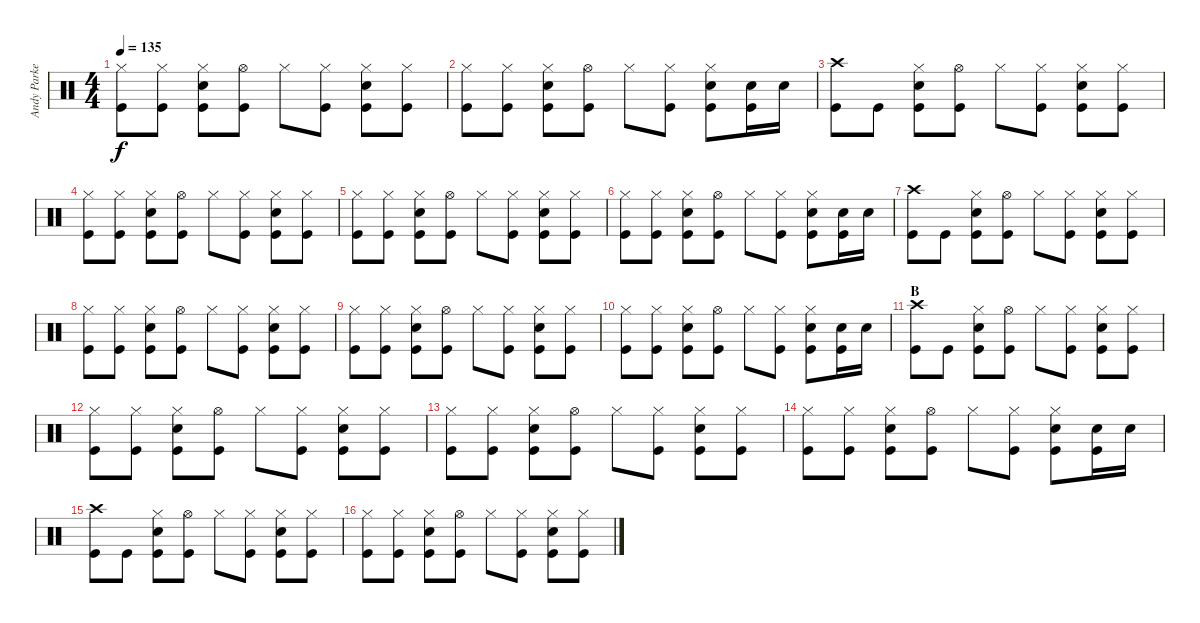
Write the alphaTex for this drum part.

\track ("Andy Parker" "Andy Parke") {instrument percussion}
\staff {score}
\articulation defaults
\ts (4 4)
\tempo 135
\clef neutral
\ks c
("Hi-Hat (closed)" "Kick (hit)").8{dy f} ("Hi-Hat (closed)" "Kick (hit)").8 ("Hi-Hat (closed)" "Snare (hit) 2" "Kick (hit)").8 ("Hi-Hat (open)" "Kick (hit)").8 "Hi-Hat (closed)".8 ("Hi-Hat (closed)" "Kick (hit)").8 ("Hi-Hat (closed)" "Snare (hit) 2" "Kick (hit)").8 ("Hi-Hat (closed)" "Kick (hit)").8 |
("Hi-Hat (closed)" "Kick (hit)").8 ("Hi-Hat (closed)" "Kick (hit)").8 ("Hi-Hat (closed)" "Snare (hit) 2" "Kick (hit)").8 ("Hi-Hat (open)" "Kick (hit)").8 "Hi-Hat (closed)".8 ("Hi-Hat (closed)" "Kick (hit)").8 ("Hi-Hat (closed)" "Snare (hit) 2" "Kick (hit)").8 ("Snare (hit) 2" "Kick (hit)").16 "Snare (hit) 2".16 |
("Crash high (hit)" "Kick (hit)").8 "Kick (hit)".8 ("Hi-Hat (closed)" "Snare (hit) 2" "Kick (hit)").8 ("Hi-Hat (open)" "Kick (hit)").8 "Hi-Hat (closed)".8 ("Hi-Hat (closed)" "Kick (hit)").8 ("Hi-Hat (closed)" "Snare (hit) 2" "Kick (hit)").8 ("Hi-Hat (closed)" "Kick (hit)").8 |
("Hi-Hat (closed)" "Kick (hit)").8 ("Hi-Hat (closed)" "Kick (hit)").8 ("Hi-Hat (closed)" "Snare (hit) 2" "Kick (hit)").8 ("Hi-Hat (open)" "Kick (hit)").8 "Hi-Hat (closed)".8 ("Hi-Hat (closed)" "Kick (hit)").8 ("Hi-Hat (closed)" "Snare (hit) 2" "Kick (hit)").8 ("Hi-Hat (closed)" "Kick (hit)").8 |
("Hi-Hat (closed)" "Kick (hit)").8 ("Hi-Hat (closed)" "Kick (hit)").8 ("Hi-Hat (closed)" "Snare (hit) 2" "Kick (hit)").8 ("Hi-Hat (open)" "Kick (hit)").8 "Hi-Hat (closed)".8 ("Hi-Hat (closed)" "Kick (hit)").8 ("Hi-Hat (closed)" "Snare (hit) 2" "Kick (hit)").8 ("Hi-Hat (closed)" "Kick (hit)").8 |
("Hi-Hat (closed)" "Kick (hit)").8 ("Hi-Hat (closed)" "Kick (hit)").8 ("Hi-Hat (closed)" "Snare (hit) 2" "Kick (hit)").8 ("Hi-Hat (open)" "Kick (hit)").8 "Hi-Hat (closed)".8 ("Hi-Hat (closed)" "Kick (hit)").8 ("Hi-Hat (closed)" "Snare (hit) 2" "Kick (hit)").8 ("Snare (hit) 2" "Kick (hit)").16 "Snare (hit) 2".16 |
("Crash high (hit)" "Kick (hit)").8 "Kick (hit)".8 ("Hi-Hat (closed)" "Snare (hit) 2" "Kick (hit)").8 ("Hi-Hat (open)" "Kick (hit)").8 "Hi-Hat (closed)".8 ("Hi-Hat (closed)" "Kick (hit)").8 ("Hi-Hat (closed)" "Snare (hit) 2" "Kick (hit)").8 ("Hi-Hat (closed)" "Kick (hit)").8 |
("Hi-Hat (closed)" "Kick (hit)").8 ("Hi-Hat (closed)" "Kick (hit)").8 ("Hi-Hat (closed)" "Snare (hit) 2" "Kick (hit)").8 ("Hi-Hat (open)" "Kick (hit)").8 "Hi-Hat (closed)".8 ("Hi-Hat (closed)" "Kick (hit)").8 ("Hi-Hat (closed)" "Snare (hit) 2" "Kick (hit)").8 ("Hi-Hat (closed)" "Kick (hit)").8 |
("Hi-Hat (closed)" "Kick (hit)").8 ("Hi-Hat (closed)" "Kick (hit)").8 ("Hi-Hat (closed)" "Snare (hit) 2" "Kick (hit)").8 ("Hi-Hat (open)" "Kick (hit)").8 "Hi-Hat (closed)".8 ("Hi-Hat (closed)" "Kick (hit)").8 ("Hi-Hat (closed)" "Snare (hit) 2" "Kick (hit)").8 ("Hi-Hat (closed)" "Kick (hit)").8 |
("Hi-Hat (closed)" "Kick (hit)").8 ("Hi-Hat (closed)" "Kick (hit)").8 ("Hi-Hat (closed)" "Snare (hit) 2" "Kick (hit)").8 ("Hi-Hat (open)" "Kick (hit)").8 "Hi-Hat (closed)".8 ("Hi-Hat (closed)" "Kick (hit)").8 ("Hi-Hat (closed)" "Snare (hit) 2" "Kick (hit)").8 ("Snare (hit) 2" "Kick (hit)").16 "Snare (hit) 2".16 |
\section ("" "B")
("Crash high (hit)" "Kick (hit)").8 "Kick (hit)".8 ("Hi-Hat (closed)" "Snare (hit) 2" "Kick (hit)").8 ("Hi-Hat (open)" "Kick (hit)").8 "Hi-Hat (closed)".8 ("Hi-Hat (closed)" "Kick (hit)").8 ("Hi-Hat (closed)" "Snare (hit) 2" "Kick (hit)").8 ("Hi-Hat (closed)" "Kick (hit)").8 |
("Hi-Hat (closed)" "Kick (hit)").8 ("Hi-Hat (closed)" "Kick (hit)").8 ("Hi-Hat (closed)" "Snare (hit) 2" "Kick (hit)").8 ("Hi-Hat (open)" "Kick (hit)").8 "Hi-Hat (closed)".8 ("Hi-Hat (closed)" "Kick (hit)").8 ("Hi-Hat (closed)" "Snare (hit) 2" "Kick (hit)").8 ("Hi-Hat (closed)" "Kick (hit)").8 |
("Hi-Hat (closed)" "Kick (hit)").8 ("Hi-Hat (closed)" "Kick (hit)").8 ("Hi-Hat (closed)" "Snare (hit) 2" "Kick (hit)").8 ("Hi-Hat (open)" "Kick (hit)").8 "Hi-Hat (closed)".8 ("Hi-Hat (closed)" "Kick (hit)").8 ("Hi-Hat (closed)" "Snare (hit) 2" "Kick (hit)").8 ("Hi-Hat (closed)" "Kick (hit)").8 |
("Hi-Hat (closed)" "Kick (hit)").8 ("Hi-Hat (closed)" "Kick (hit)").8 ("Hi-Hat (closed)" "Snare (hit) 2" "Kick (hit)").8 ("Hi-Hat (open)" "Kick (hit)").8 "Hi-Hat (closed)".8 ("Hi-Hat (closed)" "Kick (hit)").8 ("Hi-Hat (closed)" "Snare (hit) 2" "Kick (hit)").8 ("Snare (hit) 2" "Kick (hit)").16 "Snare (hit) 2".16 |
("Crash high (hit)" "Kick (hit)").8 "Kick (hit)".8 ("Hi-Hat (closed)" "Snare (hit) 2" "Kick (hit)").8 ("Hi-Hat (open)" "Kick (hit)").8 "Hi-Hat (closed)".8 ("Hi-Hat (closed)" "Kick (hit)").8 ("Hi-Hat (closed)" "Snare (hit) 2" "Kick (hit)").8 ("Hi-Hat (closed)" "Kick (hit)").8 |
("Hi-Hat (closed)" "Kick (hit)").8 ("Hi-Hat (closed)" "Kick (hit)").8 ("Hi-Hat (closed)" "Snare (hit) 2" "Kick (hit)").8 ("Hi-Hat (open)" "Kick (hit)").8 "Hi-Hat (closed)".8 ("Hi-Hat (closed)" "Kick (hit)").8 ("Hi-Hat (closed)" "Snare (hit) 2" "Kick (hit)").8 ("Hi-Hat (closed)" "Kick (hit)").8
